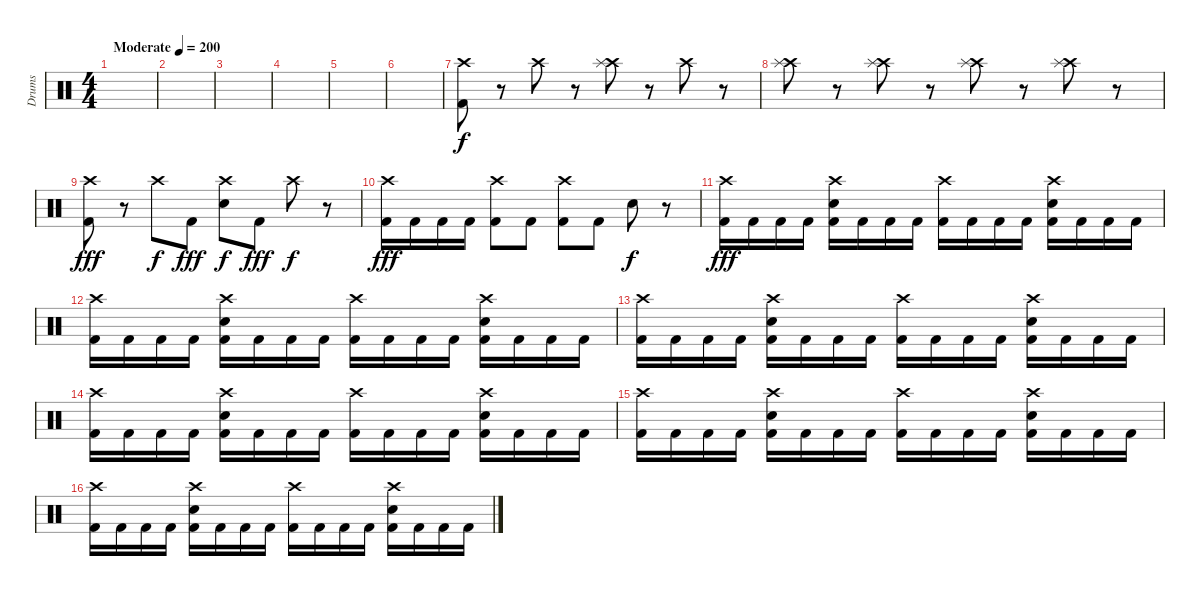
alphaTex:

\track ("Drums" "Drums") {instrument percussion}
\staff {score}
\articulation defaults
\ts (4 4)
\tempo (200 "Moderate")
\clef neutral
\ks c
|
|
|
|
|
|
("Crash high (hit)" "Kick (hit) 2").8 r.8 "Crash high (hit)".8{dy f} r.8 ("Crash high (hit)" "Splash (hit)").8 r.8 "Crash high (hit)".8 r.8 |
("Crash high (hit)" "Splash (hit)").8 r.8 ("Crash high (hit)" "Splash (hit)").8 r.8 ("Crash high (hit)" "Splash (hit)").8 r.8 ("Crash high (hit)" "Splash (hit)").8 r.8 |
("Crash high (hit)" "Kick (hit) 2").8{dy fff} r.8 "Crash high (hit)".8{dy f} "Kick (hit) 2".8{dy fff} ("Crash high (hit)" "Electric Snare (hit)").8{dy f} "Kick (hit) 2".8{dy fff} "Crash high (hit)".8{dy f} r.8 |
("Crash high (hit)" "Kick (hit) 2").16{dy fff} "Kick (hit) 2".16 "Kick (hit) 2".16 "Kick (hit) 2".16 ("Crash high (hit)" "Kick (hit) 2").8 "Kick (hit) 2".8 ("Crash high (hit)" "Kick (hit) 2").8 "Kick (hit) 2".8 "Electric Snare (hit)".8{dy f} r.8 |
("Crash high (hit)" "Kick (hit) 2").16{dy fff} "Kick (hit) 2".16 "Kick (hit) 2".16 "Kick (hit) 2".16 ("Crash high (hit)" "Electric Snare (hit)" "Kick (hit) 2").16 "Kick (hit) 2".16 "Kick (hit) 2".16 "Kick (hit) 2".16 ("Crash high (hit)" "Kick (hit) 2").16 "Kick (hit) 2".16 "Kick (hit) 2".16 "Kick (hit) 2".16 ("Crash high (hit)" "Electric Snare (hit)" "Kick (hit) 2").16 "Kick (hit) 2".16 "Kick (hit) 2".16 "Kick (hit) 2".16 |
("Crash high (hit)" "Kick (hit) 2").16 "Kick (hit) 2".16 "Kick (hit) 2".16 "Kick (hit) 2".16 ("Crash high (hit)" "Electric Snare (hit)" "Kick (hit) 2").16 "Kick (hit) 2".16 "Kick (hit) 2".16 "Kick (hit) 2".16 ("Crash high (hit)" "Kick (hit) 2").16 "Kick (hit) 2".16 "Kick (hit) 2".16 "Kick (hit) 2".16 ("Crash high (hit)" "Electric Snare (hit)" "Kick (hit) 2").16 "Kick (hit) 2".16 "Kick (hit) 2".16 "Kick (hit) 2".16 |
("Crash high (hit)" "Kick (hit) 2").16 "Kick (hit) 2".16 "Kick (hit) 2".16 "Kick (hit) 2".16 ("Crash high (hit)" "Electric Snare (hit)" "Kick (hit) 2").16 "Kick (hit) 2".16 "Kick (hit) 2".16 "Kick (hit) 2".16 ("Crash high (hit)" "Kick (hit) 2").16 "Kick (hit) 2".16 "Kick (hit) 2".16 "Kick (hit) 2".16 ("Crash high (hit)" "Electric Snare (hit)" "Kick (hit) 2").16 "Kick (hit) 2".16 "Kick (hit) 2".16 "Kick (hit) 2".16 |
("Crash high (hit)" "Kick (hit) 2").16 "Kick (hit) 2".16 "Kick (hit) 2".16 "Kick (hit) 2".16 ("Crash high (hit)" "Electric Snare (hit)" "Kick (hit) 2").16 "Kick (hit) 2".16 "Kick (hit) 2".16 "Kick (hit) 2".16 ("Crash high (hit)" "Kick (hit) 2").16 "Kick (hit) 2".16 "Kick (hit) 2".16 "Kick (hit) 2".16 ("Crash high (hit)" "Electric Snare (hit)" "Kick (hit) 2").16 "Kick (hit) 2".16 "Kick (hit) 2".16 "Kick (hit) 2".16 |
("Crash high (hit)" "Kick (hit) 2").16 "Kick (hit) 2".16 "Kick (hit) 2".16 "Kick (hit) 2".16 ("Crash high (hit)" "Electric Snare (hit)" "Kick (hit) 2").16 "Kick (hit) 2".16 "Kick (hit) 2".16 "Kick (hit) 2".16 ("Crash high (hit)" "Kick (hit) 2").16 "Kick (hit) 2".16 "Kick (hit) 2".16 "Kick (hit) 2".16 ("Crash high (hit)" "Electric Snare (hit)" "Kick (hit) 2").16 "Kick (hit) 2".16 "Kick (hit) 2".16 "Kick (hit) 2".16 |
("Crash high (hit)" "Kick (hit) 2").16 "Kick (hit) 2".16 "Kick (hit) 2".16 "Kick (hit) 2".16 ("Crash high (hit)" "Electric Snare (hit)" "Kick (hit) 2").16 "Kick (hit) 2".16 "Kick (hit) 2".16 "Kick (hit) 2".16 ("Crash high (hit)" "Kick (hit) 2").16 "Kick (hit) 2".16 "Kick (hit) 2".16 "Kick (hit) 2".16 ("Crash high (hit)" "Electric Snare (hit)" "Kick (hit) 2").16 "Kick (hit) 2".16 "Kick (hit) 2".16 "Kick (hit) 2".16
